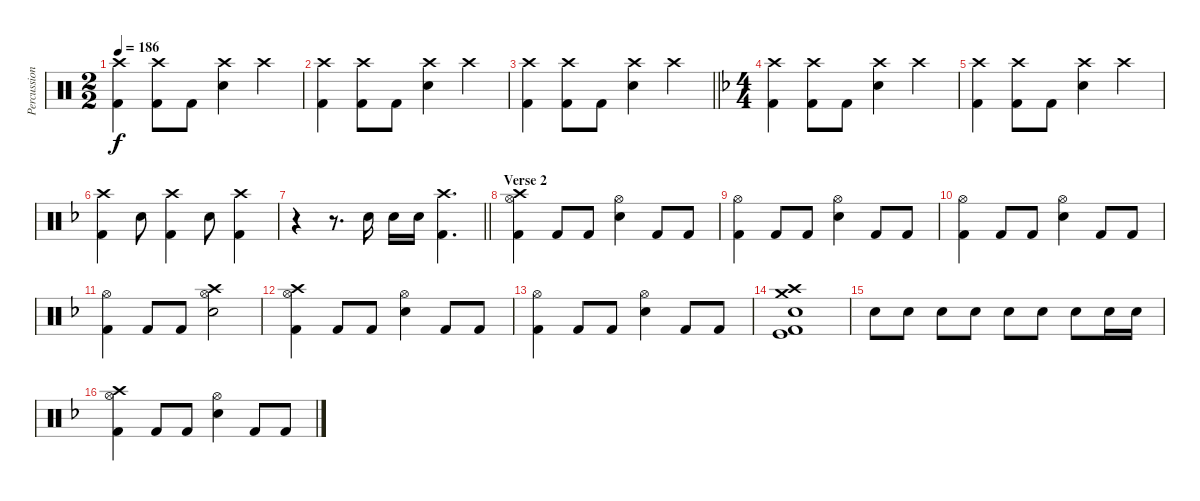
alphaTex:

\track ("Percussion" "Percussion") {instrument percussion}
\staff {score}
\articulation defaults
\ts (2 2)
\tempo 186
\clef neutral
\ks c
("Crash high (hit)" "Kick (hit) 2").4{dy f} ("Crash high (hit)" "Kick (hit) 2").8 "Kick (hit) 2".8 ("Crash high (hit)" "Snare (hit) 2").4 "Crash high (hit)".4 |
("Crash high (hit)" "Kick (hit) 2").4 ("Crash high (hit)" "Kick (hit) 2").8 "Kick (hit) 2".8 ("Crash high (hit)" "Snare (hit) 2").4 "Crash high (hit)".4 |
\barLineRight lightlight
("Crash high (hit)" "Kick (hit) 2").4 ("Crash high (hit)" "Kick (hit) 2").8 "Kick (hit) 2".8 ("Crash high (hit)" "Snare (hit) 2").4 "Crash high (hit)".4 |
\ts (4 4)
\ks f
("Crash high (hit)" "Kick (hit) 2").4 ("Crash high (hit)" "Kick (hit) 2").8 "Kick (hit) 2".8 ("Crash high (hit)" "Snare (hit) 2").4 "Crash high (hit)".4 |
("Crash high (hit)" "Kick (hit) 2").4 ("Crash high (hit)" "Kick (hit) 2").8 "Kick (hit) 2".8 ("Crash high (hit)" "Snare (hit) 2").4 "Crash high (hit)".4 |
("Crash high (hit)" "Kick (hit) 2").4 "Snare (hit) 2".8 ("Crash high (hit)" "Kick (hit) 2").4 "Snare (hit) 2".8 ("Crash high (hit)" "Kick (hit) 2").4 |
\barLineRight lightlight
r.4 r.8{d} "Snare (hit) 2".16 "Snare (hit) 2".16 "Snare (hit) 2".16 ("Crash high (hit)" "Kick (hit) 2").4{d} |
\section ("" "Verse 2")
("Crash high (hit)" "Hi-Hat (open)" "Kick (hit) 2").4 "Kick (hit) 2".8 "Kick (hit) 2".8 ("Hi-Hat (open)" "Snare (hit) 2").4 "Kick (hit) 2".8 "Kick (hit) 2".8 |
("Hi-Hat (open)" "Kick (hit) 2").4 "Kick (hit) 2".8 "Kick (hit) 2".8 ("Hi-Hat (open)" "Snare (hit) 2").4 "Kick (hit) 2".8 "Kick (hit) 2".8 |
("Hi-Hat (open)" "Kick (hit) 2").4 "Kick (hit) 2".8 "Kick (hit) 2".8 ("Hi-Hat (open)" "Snare (hit) 2").4 "Kick (hit) 2".8 "Kick (hit) 2".8 |
("Hi-Hat (open)" "Kick (hit) 2").4 "Kick (hit) 2".8 "Kick (hit) 2".8 ("Crash high (hit)" "Hi-Hat (open)" "Snare (hit) 2").2 |
("Crash high (hit)" "Hi-Hat (open)" "Kick (hit) 2").4 "Kick (hit) 2".8 "Kick (hit) 2".8 ("Hi-Hat (open)" "Snare (hit) 2").4 "Kick (hit) 2".8 "Kick (hit) 2".8 |
("Hi-Hat (open)" "Kick (hit) 2").4 "Kick (hit) 2".8 "Kick (hit) 2".8 ("Hi-Hat (open)" "Snare (hit) 2").4 "Kick (hit) 2".8 "Kick (hit) 2".8 |
("Snare (hit) 2" "Crash high (hit)" "Crash medium (hit)" "Kick (hit)" "Kick (hit) 2").1 |
"Snare (hit) 2".8 "Snare (hit) 2".8 "Snare (hit) 2".8 "Snare (hit) 2".8 "Snare (hit) 2".8 "Snare (hit) 2".8 "Snare (hit) 2".8 "Snare (hit) 2".16 "Snare (hit) 2".16 |
("Crash high (hit)" "Hi-Hat (open)" "Kick (hit) 2").4 "Kick (hit) 2".8 "Kick (hit) 2".8 ("Hi-Hat (open)" "Snare (hit) 2").4 "Kick (hit) 2".8 "Kick (hit) 2".8
